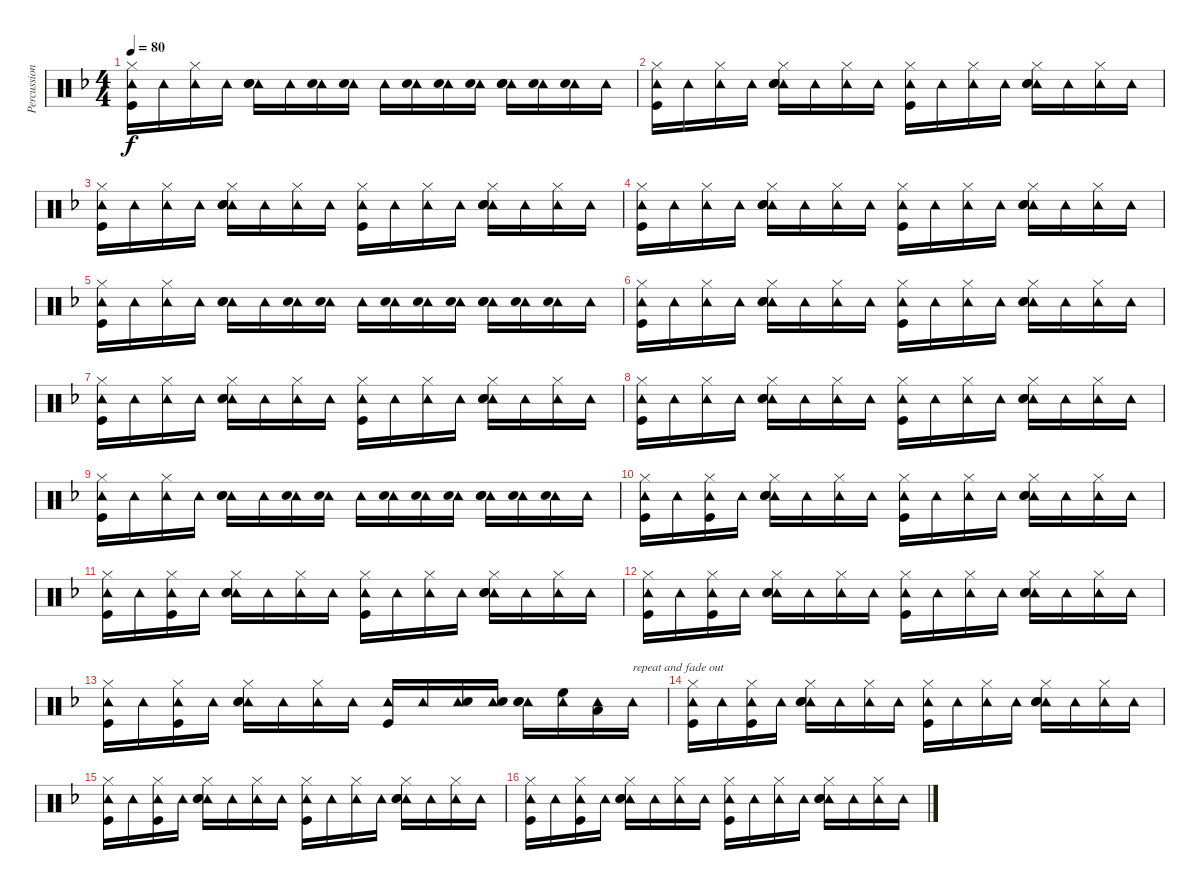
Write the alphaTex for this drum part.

\track ("Percussion" "Percussion") {instrument percussion}
\staff {score}
\articulation defaults
\ts (4 4)
\tempo 80
\clef neutral
\ks f
("Hi-Hat (closed)" "Tambourine (hit)" "Kick (hit)").16{dy f} "Tambourine (hit)".16 ("Hi-Hat (closed)" "Tambourine (hit)").16 "Tambourine (hit)".16 ("Tambourine (hit)" "Snare (hit) 2" "Hand Clap (hit)").16 "Tambourine (hit)".16 ("Tambourine (hit)" "Snare (hit) 2").16 ("Tambourine (hit)" "Snare (hit) 2").16 "Tambourine (hit)".16 ("Tambourine (hit)" "Snare (hit) 2").16 ("Tambourine (hit)" "Snare (hit) 2").16 ("Tambourine (hit)" "Snare (hit) 2").16 ("Tambourine (hit)" "Snare (hit) 2" "Hand Clap (hit)").16 ("Tambourine (hit)" "Snare (hit) 2").16 ("Tambourine (hit)" "Snare (hit) 2").16 "Tambourine (hit)".16 |
("Hi-Hat (closed)" "Tambourine (hit)" "Kick (hit)").16 "Tambourine (hit)".16 ("Hi-Hat (closed)" "Tambourine (hit)").16 "Tambourine (hit)".16 ("Hi-Hat (closed)" "Tambourine (hit)" "Snare (hit) 2" "Hand Clap (hit)").16 "Tambourine (hit)".16 ("Hi-Hat (closed)" "Tambourine (hit)").16 "Tambourine (hit)".16 ("Hi-Hat (closed)" "Tambourine (hit)" "Kick (hit)").16 "Tambourine (hit)".16 ("Hi-Hat (closed)" "Tambourine (hit)").16 "Tambourine (hit)".16 ("Hi-Hat (closed)" "Tambourine (hit)" "Snare (hit) 2" "Hand Clap (hit)").16 "Tambourine (hit)".16 ("Hi-Hat (closed)" "Tambourine (hit)").16 "Tambourine (hit)".16 |
("Hi-Hat (closed)" "Tambourine (hit)" "Kick (hit)").16 "Tambourine (hit)".16 ("Hi-Hat (closed)" "Tambourine (hit)").16 "Tambourine (hit)".16 ("Hi-Hat (closed)" "Tambourine (hit)" "Snare (hit) 2" "Hand Clap (hit)").16 "Tambourine (hit)".16 ("Hi-Hat (closed)" "Tambourine (hit)").16 "Tambourine (hit)".16 ("Hi-Hat (closed)" "Tambourine (hit)" "Kick (hit)").16 "Tambourine (hit)".16 ("Hi-Hat (closed)" "Tambourine (hit)").16 "Tambourine (hit)".16 ("Hi-Hat (closed)" "Tambourine (hit)" "Snare (hit) 2" "Hand Clap (hit)").16 "Tambourine (hit)".16 ("Hi-Hat (closed)" "Tambourine (hit)").16 "Tambourine (hit)".16 |
("Hi-Hat (closed)" "Tambourine (hit)" "Kick (hit)").16 "Tambourine (hit)".16 ("Hi-Hat (closed)" "Tambourine (hit)").16 "Tambourine (hit)".16 ("Hi-Hat (closed)" "Tambourine (hit)" "Snare (hit) 2" "Hand Clap (hit)").16 "Tambourine (hit)".16 ("Hi-Hat (closed)" "Tambourine (hit)").16 "Tambourine (hit)".16 ("Hi-Hat (closed)" "Tambourine (hit)" "Kick (hit)").16 "Tambourine (hit)".16 ("Hi-Hat (closed)" "Tambourine (hit)").16 "Tambourine (hit)".16 ("Hi-Hat (closed)" "Tambourine (hit)" "Snare (hit) 2" "Hand Clap (hit)").16 "Tambourine (hit)".16 ("Hi-Hat (closed)" "Tambourine (hit)").16 "Tambourine (hit)".16 |
("Hi-Hat (closed)" "Tambourine (hit)" "Kick (hit)").16 "Tambourine (hit)".16 ("Hi-Hat (closed)" "Tambourine (hit)").16 "Tambourine (hit)".16 ("Tambourine (hit)" "Snare (hit) 2" "Hand Clap (hit)").16 "Tambourine (hit)".16 ("Tambourine (hit)" "Snare (hit) 2").16 ("Tambourine (hit)" "Snare (hit) 2").16 "Tambourine (hit)".16 ("Tambourine (hit)" "Snare (hit) 2").16 ("Tambourine (hit)" "Snare (hit) 2").16 ("Tambourine (hit)" "Snare (hit) 2").16 ("Tambourine (hit)" "Snare (hit) 2" "Hand Clap (hit)").16 ("Tambourine (hit)" "Snare (hit) 2").16 ("Tambourine (hit)" "Snare (hit) 2").16 "Tambourine (hit)".16 |
("Hi-Hat (closed)" "Tambourine (hit)" "Kick (hit)").16 "Tambourine (hit)".16 ("Hi-Hat (closed)" "Tambourine (hit)").16 "Tambourine (hit)".16 ("Hi-Hat (closed)" "Tambourine (hit)" "Snare (hit) 2" "Hand Clap (hit)").16 "Tambourine (hit)".16 ("Hi-Hat (closed)" "Tambourine (hit)").16 "Tambourine (hit)".16 ("Hi-Hat (closed)" "Tambourine (hit)" "Kick (hit)").16 "Tambourine (hit)".16 ("Hi-Hat (closed)" "Tambourine (hit)").16 "Tambourine (hit)".16 ("Hi-Hat (closed)" "Tambourine (hit)" "Snare (hit) 2" "Hand Clap (hit)").16 "Tambourine (hit)".16 ("Hi-Hat (closed)" "Tambourine (hit)").16 "Tambourine (hit)".16 |
("Hi-Hat (closed)" "Tambourine (hit)" "Kick (hit)").16 "Tambourine (hit)".16 ("Hi-Hat (closed)" "Tambourine (hit)").16 "Tambourine (hit)".16 ("Hi-Hat (closed)" "Tambourine (hit)" "Snare (hit) 2" "Hand Clap (hit)").16 "Tambourine (hit)".16 ("Hi-Hat (closed)" "Tambourine (hit)").16 "Tambourine (hit)".16 ("Hi-Hat (closed)" "Tambourine (hit)" "Kick (hit)").16 "Tambourine (hit)".16 ("Hi-Hat (closed)" "Tambourine (hit)").16 "Tambourine (hit)".16 ("Hi-Hat (closed)" "Tambourine (hit)" "Snare (hit) 2" "Hand Clap (hit)").16 "Tambourine (hit)".16 ("Hi-Hat (closed)" "Tambourine (hit)").16 "Tambourine (hit)".16 |
("Hi-Hat (closed)" "Tambourine (hit)" "Kick (hit)").16 "Tambourine (hit)".16 ("Hi-Hat (closed)" "Tambourine (hit)").16 "Tambourine (hit)".16 ("Hi-Hat (closed)" "Tambourine (hit)" "Snare (hit) 2" "Hand Clap (hit)").16 "Tambourine (hit)".16 ("Hi-Hat (closed)" "Tambourine (hit)").16 "Tambourine (hit)".16 ("Hi-Hat (closed)" "Tambourine (hit)" "Kick (hit)").16 "Tambourine (hit)".16 ("Hi-Hat (closed)" "Tambourine (hit)").16 "Tambourine (hit)".16 ("Hi-Hat (closed)" "Tambourine (hit)" "Snare (hit) 2" "Hand Clap (hit)").16 "Tambourine (hit)".16 ("Hi-Hat (closed)" "Tambourine (hit)").16 "Tambourine (hit)".16 |
("Hi-Hat (closed)" "Tambourine (hit)" "Kick (hit)").16 "Tambourine (hit)".16 ("Hi-Hat (closed)" "Tambourine (hit)").16 "Tambourine (hit)".16 ("Tambourine (hit)" "Snare (hit) 2" "Hand Clap (hit)").16 "Tambourine (hit)".16 ("Tambourine (hit)" "Snare (hit) 2").16 ("Tambourine (hit)" "Snare (hit) 2").16 "Tambourine (hit)".16 ("Tambourine (hit)" "Snare (hit) 2").16 ("Tambourine (hit)" "Snare (hit) 2").16 ("Tambourine (hit)" "Snare (hit) 2").16 ("Tambourine (hit)" "Snare (hit) 2" "Hand Clap (hit)").16 ("Tambourine (hit)" "Snare (hit) 2").16 ("Tambourine (hit)" "Snare (hit) 2").16 "Tambourine (hit)".16 |
("Hi-Hat (closed)" "Tambourine (hit)" "Kick (hit)").16 "Tambourine (hit)".16 ("Hi-Hat (closed)" "Tambourine (hit)" "Kick (hit)").16 "Tambourine (hit)".16 ("Hi-Hat (closed)" "Tambourine (hit)" "Snare (hit) 2" "Hand Clap (hit)").16 "Tambourine (hit)".16 ("Hi-Hat (closed)" "Tambourine (hit)").16 "Tambourine (hit)".16 ("Hi-Hat (closed)" "Tambourine (hit)" "Kick (hit)").16 "Tambourine (hit)".16 ("Hi-Hat (closed)" "Tambourine (hit)").16 "Tambourine (hit)".16 ("Hi-Hat (closed)" "Tambourine (hit)" "Snare (hit) 2" "Hand Clap (hit)").16 "Tambourine (hit)".16 ("Hi-Hat (closed)" "Tambourine (hit)").16 "Tambourine (hit)".16 |
("Hi-Hat (closed)" "Tambourine (hit)" "Kick (hit)").16 "Tambourine (hit)".16 ("Hi-Hat (closed)" "Tambourine (hit)" "Kick (hit)").16 "Tambourine (hit)".16 ("Hi-Hat (closed)" "Tambourine (hit)" "Snare (hit) 2" "Hand Clap (hit)").16 "Tambourine (hit)".16 ("Hi-Hat (closed)" "Tambourine (hit)").16 "Tambourine (hit)".16 ("Hi-Hat (closed)" "Tambourine (hit)" "Kick (hit)").16 "Tambourine (hit)".16 ("Hi-Hat (closed)" "Tambourine (hit)").16 "Tambourine (hit)".16 ("Hi-Hat (closed)" "Tambourine (hit)" "Snare (hit) 2" "Hand Clap (hit)").16 "Tambourine (hit)".16 ("Hi-Hat (closed)" "Tambourine (hit)").16 "Tambourine (hit)".16 |
("Hi-Hat (closed)" "Tambourine (hit)" "Kick (hit)").16 "Tambourine (hit)".16 ("Hi-Hat (closed)" "Tambourine (hit)" "Kick (hit)").16 "Tambourine (hit)".16 ("Hi-Hat (closed)" "Tambourine (hit)" "Snare (hit) 2" "Hand Clap (hit)").16 "Tambourine (hit)".16 ("Hi-Hat (closed)" "Tambourine (hit)").16 "Tambourine (hit)".16 ("Hi-Hat (closed)" "Tambourine (hit)" "Kick (hit)").16 "Tambourine (hit)".16 ("Hi-Hat (closed)" "Tambourine (hit)").16 "Tambourine (hit)".16 ("Hi-Hat (closed)" "Tambourine (hit)" "Snare (hit) 2" "Hand Clap (hit)").16 "Tambourine (hit)".16 ("Hi-Hat (closed)" "Tambourine (hit)").16 "Tambourine (hit)".16 |
("Hi-Hat (closed)" "Tambourine (hit)" "Kick (hit)").16 "Tambourine (hit)".16 ("Hi-Hat (closed)" "Tambourine (hit)" "Kick (hit)").16 "Tambourine (hit)".16 ("Hi-Hat (closed)" "Tambourine (hit)" "Snare (hit) 2" "Hand Clap (hit)").16 "Tambourine (hit)".16 ("Hi-Hat (closed)" "Tambourine (hit)").16 "Tambourine (hit)".16 ("Tambourine (hit)" "Kick (hit)").16 "Tambourine (hit)".16 ("Tambourine (hit)" "Snare (hit) 2").16 ("Tambourine (hit)" "Snare (hit) 2").16 ("Tambourine (hit)" "Snare (hit) 2" "Hand Clap (hit)").16 ("Tambourine (hit)" "High Floor Tom (hit)").16 ("Tambourine (hit)" "Low Tom (hit)").16 "Tambourine (hit)".16{txt "repeat and fade out"} |
("Hi-Hat (closed)" "Tambourine (hit)" "Kick (hit)").16 "Tambourine (hit)".16 ("Hi-Hat (closed)" "Tambourine (hit)" "Kick (hit)").16 "Tambourine (hit)".16 ("Hi-Hat (closed)" "Tambourine (hit)" "Snare (hit) 2" "Hand Clap (hit)").16 "Tambourine (hit)".16 ("Hi-Hat (closed)" "Tambourine (hit)").16 "Tambourine (hit)".16 ("Hi-Hat (closed)" "Tambourine (hit)" "Kick (hit)").16 "Tambourine (hit)".16 ("Hi-Hat (closed)" "Tambourine (hit)").16 "Tambourine (hit)".16 ("Hi-Hat (closed)" "Tambourine (hit)" "Snare (hit) 2" "Hand Clap (hit)").16 "Tambourine (hit)".16 ("Hi-Hat (closed)" "Tambourine (hit)").16 "Tambourine (hit)".16 |
("Hi-Hat (closed)" "Tambourine (hit)" "Kick (hit)").16 "Tambourine (hit)".16 ("Hi-Hat (closed)" "Tambourine (hit)" "Kick (hit)").16 "Tambourine (hit)".16 ("Hi-Hat (closed)" "Tambourine (hit)" "Snare (hit) 2" "Hand Clap (hit)").16 "Tambourine (hit)".16 ("Hi-Hat (closed)" "Tambourine (hit)").16 "Tambourine (hit)".16 ("Hi-Hat (closed)" "Tambourine (hit)" "Kick (hit)").16 "Tambourine (hit)".16 ("Hi-Hat (closed)" "Tambourine (hit)").16 "Tambourine (hit)".16 ("Hi-Hat (closed)" "Tambourine (hit)" "Snare (hit) 2" "Hand Clap (hit)").16 "Tambourine (hit)".16 ("Hi-Hat (closed)" "Tambourine (hit)").16 "Tambourine (hit)".16 |
("Hi-Hat (closed)" "Tambourine (hit)" "Kick (hit)").16 "Tambourine (hit)".16 ("Hi-Hat (closed)" "Tambourine (hit)" "Kick (hit)").16 "Tambourine (hit)".16 ("Hi-Hat (closed)" "Tambourine (hit)" "Snare (hit) 2" "Hand Clap (hit)").16 "Tambourine (hit)".16 ("Hi-Hat (closed)" "Tambourine (hit)").16 "Tambourine (hit)".16 ("Hi-Hat (closed)" "Tambourine (hit)" "Kick (hit)").16 "Tambourine (hit)".16 ("Hi-Hat (closed)" "Tambourine (hit)").16 "Tambourine (hit)".16 ("Hi-Hat (closed)" "Tambourine (hit)" "Snare (hit) 2" "Hand Clap (hit)").16 "Tambourine (hit)".16 ("Hi-Hat (closed)" "Tambourine (hit)").16 "Tambourine (hit)".16
